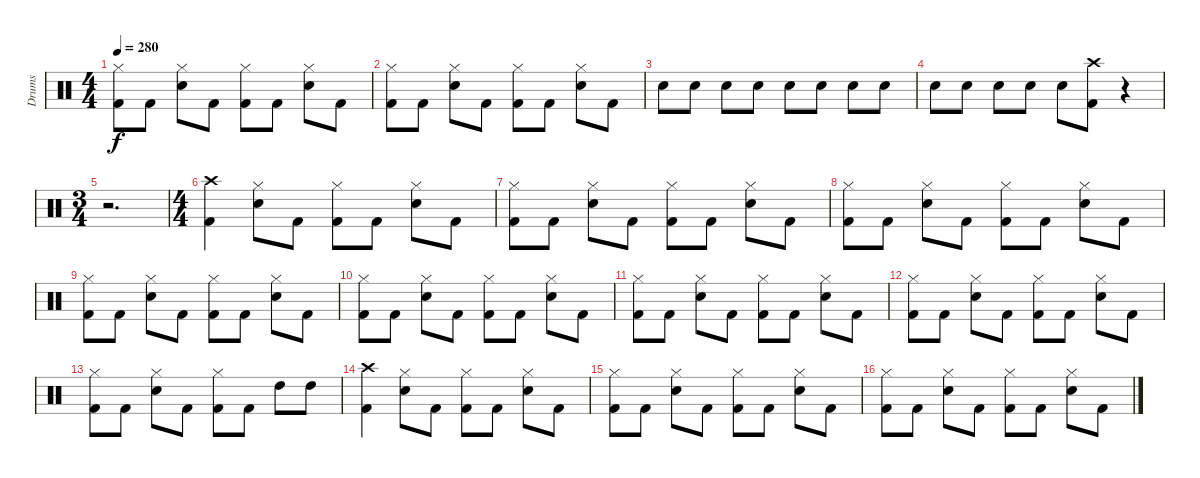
\track ("Drums" "Drums") {instrument percussion}
\staff {score}
\articulation defaults
\ts (4 4)
\tempo 280
\clef neutral
\ks c
("Hi-Hat (closed)" "Kick (hit) 2").8{dy f} "Kick (hit) 2".8 ("Hi-Hat (closed)" "Snare (hit) 2").8 "Kick (hit) 2".8 ("Hi-Hat (closed)" "Kick (hit) 2").8 "Kick (hit) 2".8 ("Hi-Hat (closed)" "Snare (hit) 2").8 "Kick (hit) 2".8 |
("Hi-Hat (closed)" "Kick (hit) 2").8 "Kick (hit) 2".8 ("Hi-Hat (closed)" "Snare (hit) 2").8 "Kick (hit) 2".8 ("Hi-Hat (closed)" "Kick (hit) 2").8 "Kick (hit) 2".8 ("Hi-Hat (closed)" "Snare (hit) 2").8 "Kick (hit) 2".8 |
"Snare (hit) 2".8 "Snare (hit) 2".8 "Snare (hit) 2".8 "Snare (hit) 2".8 "Snare (hit) 2".8 "Snare (hit) 2".8 "Snare (hit) 2".8 "Snare (hit) 2".8 |
"Snare (hit) 2".8 "Snare (hit) 2".8 "Snare (hit) 2".8 "Snare (hit) 2".8 "Snare (hit) 2".8 ("Kick (hit) 2" "Crash high (hit)").8 r.4 |
\ts (3 4)
r.2{d} |
\ts (4 4)
("Kick (hit) 2" "Crash high (hit)").4 ("Hi-Hat (closed)" "Snare (hit) 2").8 "Kick (hit) 2".8 ("Hi-Hat (closed)" "Kick (hit) 2").8 "Kick (hit) 2".8 ("Hi-Hat (closed)" "Snare (hit) 2").8 "Kick (hit) 2".8 |
("Hi-Hat (closed)" "Kick (hit) 2").8 "Kick (hit) 2".8 ("Hi-Hat (closed)" "Snare (hit) 2").8 "Kick (hit) 2".8 ("Hi-Hat (closed)" "Kick (hit) 2").8 "Kick (hit) 2".8 ("Hi-Hat (closed)" "Snare (hit) 2").8 "Kick (hit) 2".8 |
("Hi-Hat (closed)" "Kick (hit) 2").8 "Kick (hit) 2".8 ("Hi-Hat (closed)" "Snare (hit) 2").8 "Kick (hit) 2".8 ("Hi-Hat (closed)" "Kick (hit) 2").8 "Kick (hit) 2".8 ("Hi-Hat (closed)" "Snare (hit) 2").8 "Kick (hit) 2".8 |
("Hi-Hat (closed)" "Kick (hit) 2").8 "Kick (hit) 2".8 ("Hi-Hat (closed)" "Snare (hit) 2").8 "Kick (hit) 2".8 ("Hi-Hat (closed)" "Kick (hit) 2").8 "Kick (hit) 2".8 ("Hi-Hat (closed)" "Snare (hit) 2").8 "Kick (hit) 2".8 |
("Hi-Hat (closed)" "Kick (hit) 2").8 "Kick (hit) 2".8 ("Hi-Hat (closed)" "Snare (hit) 2").8 "Kick (hit) 2".8 ("Hi-Hat (closed)" "Kick (hit) 2").8 "Kick (hit) 2".8 ("Hi-Hat (closed)" "Snare (hit) 2").8 "Kick (hit) 2".8 |
("Hi-Hat (closed)" "Kick (hit) 2").8 "Kick (hit) 2".8 ("Hi-Hat (closed)" "Snare (hit) 2").8 "Kick (hit) 2".8 ("Hi-Hat (closed)" "Kick (hit) 2").8 "Kick (hit) 2".8 ("Hi-Hat (closed)" "Snare (hit) 2").8 "Kick (hit) 2".8 |
("Hi-Hat (closed)" "Kick (hit) 2").8 "Kick (hit) 2".8 ("Hi-Hat (closed)" "Snare (hit) 2").8 "Kick (hit) 2".8 ("Hi-Hat (closed)" "Kick (hit) 2").8 "Kick (hit) 2".8 ("Hi-Hat (closed)" "Snare (hit) 2").8 "Kick (hit) 2".8 |
("Hi-Hat (closed)" "Kick (hit) 2").8 "Kick (hit) 2".8 ("Hi-Hat (closed)" "Snare (hit) 2").8 "Kick (hit) 2".8 ("Hi-Hat (closed)" "Kick (hit) 2").8 "Kick (hit) 2".8 "High Tom (hit)".8 "High Tom (hit)".8 |
("Kick (hit) 2" "Crash high (hit)").4 ("Hi-Hat (closed)" "Snare (hit) 2").8 "Kick (hit) 2".8 ("Hi-Hat (closed)" "Kick (hit) 2").8 "Kick (hit) 2".8 ("Hi-Hat (closed)" "Snare (hit) 2").8 "Kick (hit) 2".8 |
("Hi-Hat (closed)" "Kick (hit) 2").8 "Kick (hit) 2".8 ("Hi-Hat (closed)" "Snare (hit) 2").8 "Kick (hit) 2".8 ("Hi-Hat (closed)" "Kick (hit) 2").8 "Kick (hit) 2".8 ("Hi-Hat (closed)" "Snare (hit) 2").8 "Kick (hit) 2".8 |
("Hi-Hat (closed)" "Kick (hit) 2").8 "Kick (hit) 2".8 ("Hi-Hat (closed)" "Snare (hit) 2").8 "Kick (hit) 2".8 ("Hi-Hat (closed)" "Kick (hit) 2").8 "Kick (hit) 2".8 ("Hi-Hat (closed)" "Snare (hit) 2").8 "Kick (hit) 2".8
